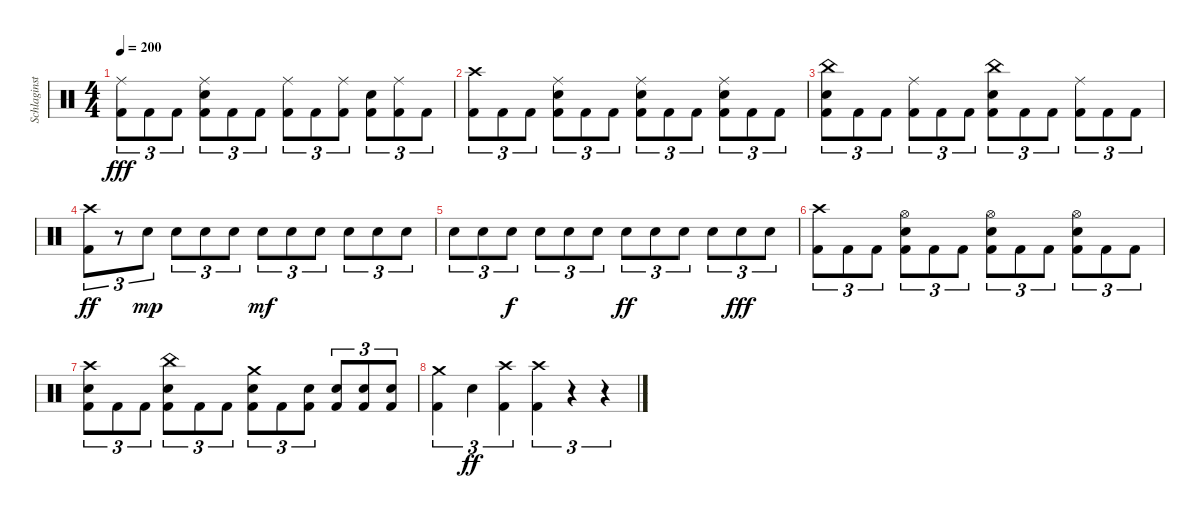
\track ("Schlaginstrumente - Auswahl" "Schlaginst") {instrument percussion}
\staff {score}
\articulation defaults
\ts (4 4)
\tempo 200
\clef neutral
\ks c
("Ride (middle)" "Kick (hit) 2").8{tu (3 2) dy fff} "Kick (hit) 2".8{tu (3 2)} "Kick (hit) 2".8{tu (3 2)} ("Ride (middle)" "Snare (hit) 2" "Kick (hit) 2").8{tu (3 2)} "Kick (hit) 2".8{tu (3 2)} "Kick (hit) 2".8{tu (3 2)} ("Ride (middle)" "Kick (hit) 2").8{tu (3 2)} "Kick (hit) 2".8{tu (3 2)} ("Ride (middle)" "Kick (hit) 2").8{tu (3 2)} ("Snare (hit) 2" "Kick (hit) 2").8{tu (3 2)} ("Ride (middle)" "Kick (hit) 2").8{tu (3 2)} "Kick (hit) 2".8{tu (3 2)} |
("Crash high (hit)" "Kick (hit) 2").8{tu (3 2)} "Kick (hit) 2".8{tu (3 2)} "Kick (hit) 2".8{tu (3 2)} ("Ride (middle)" "Snare (hit) 2" "Kick (hit) 2").8{tu (3 2)} "Kick (hit) 2".8{tu (3 2)} "Kick (hit) 2".8{tu (3 2)} ("Ride (middle)" "Snare (hit) 2" "Kick (hit) 2").8{tu (3 2)} "Kick (hit) 2".8{tu (3 2)} "Kick (hit) 2".8{tu (3 2)} ("Ride (middle)" "Snare (hit) 2" "Kick (hit) 2").8{tu (3 2)} "Kick (hit) 2".8{tu (3 2)} "Kick (hit) 2".8{tu (3 2)} |
("China (hit)" "Snare (hit) 2" "Kick (hit) 2").8{tu (3 2)} "Kick (hit) 2".8{tu (3 2)} "Kick (hit) 2".8{tu (3 2)} ("Ride (middle)" "Kick (hit) 2").8{tu (3 2)} "Kick (hit) 2".8{tu (3 2)} "Kick (hit) 2".8{tu (3 2)} ("China (hit)" "Snare (hit) 2" "Kick (hit) 2").8{tu (3 2)} "Kick (hit) 2".8{tu (3 2)} "Kick (hit) 2".8{tu (3 2)} ("Ride (middle)" "Kick (hit) 2").8{tu (3 2)} "Kick (hit) 2".8{tu (3 2)} "Kick (hit) 2".8{tu (3 2)} |
("Crash high (hit)" "Kick (hit) 2").8{tu (3 2) dy ff} r.8{tu (3 2)} "Snare (hit) 2".8{tu (3 2) dy mp} "Snare (hit) 2".8{tu (3 2)} "Snare (hit) 2".8{tu (3 2)} "Snare (hit) 2".8{tu (3 2)} "Snare (hit) 2".8{tu (3 2) dy mf} "Snare (hit) 2".8{tu (3 2)} "Snare (hit) 2".8{tu (3 2)} "Snare (hit) 2".8{tu (3 2)} "Snare (hit) 2".8{tu (3 2)} "Snare (hit) 2".8{tu (3 2)} |
"Snare (hit) 2".8{tu (3 2)} "Snare (hit) 2".8{tu (3 2)} "Snare (hit) 2".8{tu (3 2) dy f} "Snare (hit) 2".8{tu (3 2)} "Snare (hit) 2".8{tu (3 2)} "Snare (hit) 2".8{tu (3 2)} "Snare (hit) 2".8{tu (3 2) dy ff} "Snare (hit) 2".8{tu (3 2)} "Snare (hit) 2".8{tu (3 2)} "Snare (hit) 2".8{tu (3 2)} "Snare (hit) 2".8{tu (3 2) dy fff} "Snare (hit) 2".8{tu (3 2)} |
("Crash high (hit)" "Kick (hit) 2").8{tu (3 2)} "Kick (hit) 2".8{tu (3 2)} "Kick (hit) 2".8{tu (3 2)} ("Hi-Hat (open)" "Snare (hit) 2" "Kick (hit) 2").8{tu (3 2)} "Kick (hit) 2".8{tu (3 2)} "Kick (hit) 2".8{tu (3 2)} ("Hi-Hat (open)" "Snare (hit) 2" "Kick (hit) 2").8{tu (3 2)} "Kick (hit) 2".8{tu (3 2)} "Kick (hit) 2".8{tu (3 2)} ("Hi-Hat (open)" "Snare (hit) 2" "Kick (hit) 2").8{tu (3 2)} "Kick (hit) 2".8{tu (3 2)} "Kick (hit) 2".8{tu (3 2)} |
("Crash high (hit)" "Snare (hit) 2" "Kick (hit) 2").8{tu (3 2)} "Kick (hit) 2".8{tu (3 2)} "Kick (hit) 2".8{tu (3 2)} ("China (hit)" "Snare (hit) 2" "Kick (hit) 2").8{tu (3 2)} "Kick (hit) 2".8{tu (3 2)} "Kick (hit) 2".8{tu (3 2)} ("Crash medium (hit)" "Snare (hit) 2" "Kick (hit) 2").8{tu (3 2)} "Kick (hit) 2".8{tu (3 2)} ("Snare (hit) 2" "Kick (hit) 2").8{tu (3 2)} ("Snare (hit) 2" "Kick (hit) 2").8{tu (3 2)} ("Snare (hit) 2" "Kick (hit) 2").8{tu (3 2)} ("Snare (hit) 2" "Kick (hit) 2").8{tu (3 2)} |
("Crash medium (hit)" "Kick (hit) 2").4{tu (3 2)} "Snare (hit) 2".4{tu (3 2) dy ff} ("Crash high (hit)" "Kick (hit) 2").4{tu (3 2)} ("Crash high (hit)" "Kick (hit) 2").4{tu (3 2)} r.4{tu (3 2)} r.4{tu (3 2)}
